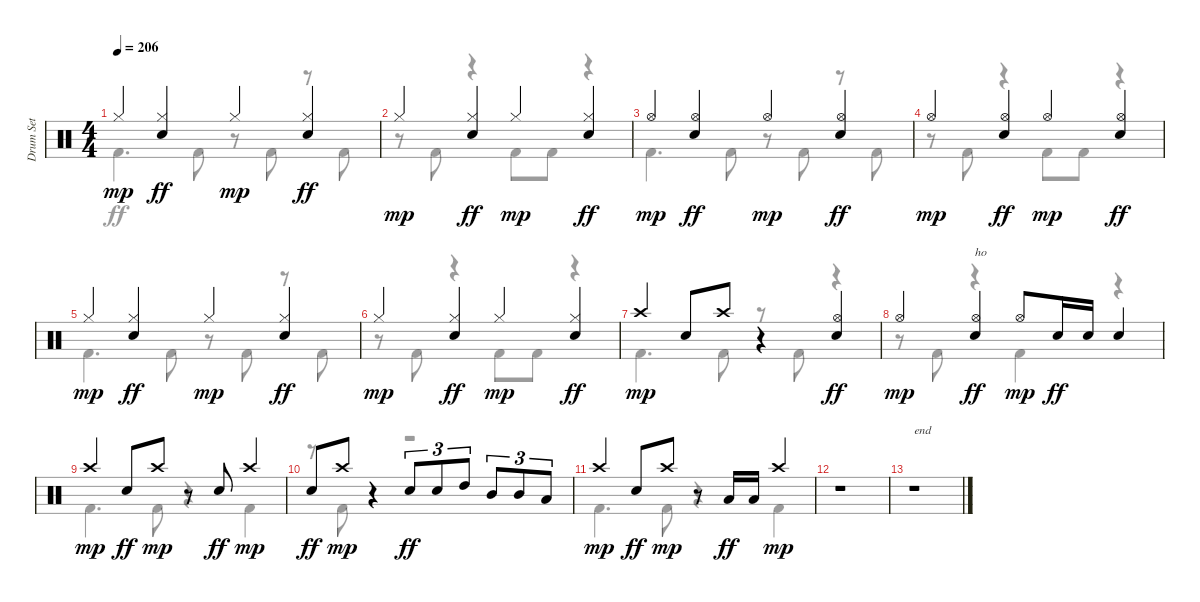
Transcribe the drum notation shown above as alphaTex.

\track ("Drum Set" "Drum Set") {instrument percussion}
\staff {score}
\articulation defaults
\voice
\ts (4 4)
\tempo 206
\clef neutral
\ks c "Hi-Hat (closed)".4{dy mp}
("Hi-Hat (closed)" "Electric Snare (hit)").4{dy ff} "Hi-Hat (closed)".4{dy mp} ("Hi-Hat (closed)" "Electric Snare (hit)").4{dy ff} |
"Hi-Hat (closed)".4{dy mp} ("Hi-Hat (closed)" "Electric Snare (hit)").4{dy ff} "Hi-Hat (closed)".4{dy mp} ("Hi-Hat (closed)" "Electric Snare (hit)").4{dy ff} |
"Hi-Hat (open)".4{dy mp} ("Hi-Hat (open)" "Electric Snare (hit)").4{dy ff} "Hi-Hat (open)".4{dy mp} ("Hi-Hat (open)" "Electric Snare (hit)").4{dy ff} |
"Hi-Hat (open)".4{dy mp} ("Hi-Hat (open)" "Electric Snare (hit)").4{dy ff} "Hi-Hat (open)".4{dy mp} ("Hi-Hat (open)" "Electric Snare (hit)").4{dy ff} |
"Hi-Hat (closed)".4{dy mp} ("Hi-Hat (closed)" "Electric Snare (hit)").4{dy ff} "Hi-Hat (closed)".4{dy mp} ("Hi-Hat (closed)" "Electric Snare (hit)").4{dy ff} |
"Hi-Hat (closed)".4{dy mp} ("Hi-Hat (closed)" "Electric Snare (hit)").4{dy ff} "Hi-Hat (closed)".4{dy mp} ("Hi-Hat (closed)" "Electric Snare (hit)").4{dy ff} |
"Crash high (hit)".4{dy mp} "Electric Snare (hit)".8 "Crash high (hit)".8 r.4 ("Hi-Hat (open)" "Electric Snare (hit)").4{dy ff} |
"Hi-Hat (open)".4{dy mp} ("Hi-Hat (open)" "Electric Snare (hit)").4{txt "ho" dy ff} "Hi-Hat (open)".8{dy mp} "Electric Snare (hit)".16{dy ff} "Electric Snare (hit)".16 "Electric Snare (hit)".4 |
"Crash high (hit)".4{dy mp} "Electric Snare (hit)".8{dy ff} "Crash high (hit)".8{dy mp} r.8 "Electric Snare (hit)".8{dy ff} "Crash high (hit)".4{dy mp} |
"Electric Snare (hit)".8{dy ff} "Crash high (hit)".8{dy mp} r.4 "Electric Snare (hit)".8{tu (3 2) dy ff} "Electric Snare (hit)".8{tu (3 2)} "High Tom (hit)".8{tu (3 2)} "Mid Tom (hit)".8{tu (3 2)} "Mid Tom (hit)".8{tu (3 2)} "Low Tom (hit)".8{tu (3 2)} |
"Crash high (hit)".4{dy mp} "Electric Snare (hit)".8{dy ff} "Crash high (hit)".8{dy mp} r.8 "Low Tom (hit)".16{dy ff} "Low Tom (hit)".16 "Crash high (hit)".4{dy mp} |
r.1 |
r.1{txt "end"}
\voice
\clef neutral
\ottava regular
\simile none
\ks c "Kick (hit) 2".4{d dy ff} "Kick (hit) 2".8
r.8 "Kick (hit) 2".8 r.8 "Kick (hit) 2".8 |
r.8 "Kick (hit) 2".8 r.4 "Kick (hit) 2".8 "Kick (hit) 2".8 r.4 |
"Kick (hit) 2".4{d} "Kick (hit) 2".8 r.8 "Kick (hit) 2".8 r.8 "Kick (hit) 2".8 |
r.8 "Kick (hit) 2".8 r.4 "Kick (hit) 2".8 "Kick (hit) 2".8 r.4 |
"Kick (hit) 2".4{d} "Kick (hit) 2".8 r.8 "Kick (hit) 2".8 r.8 "Kick (hit) 2".8 |
r.8 "Kick (hit) 2".8 r.4 "Kick (hit) 2".8 "Kick (hit) 2".8 r.4 |
"Kick (hit) 2".4{d} "Kick (hit) 2".8 r.8 "Kick (hit) 2".8 r.4 |
r.8 "Kick (hit) 2".8 r.4 "Kick (hit) 2".4 r.4 |
"Kick (hit) 2".4{d} "Kick (hit) 2".8 r.4 "Kick (hit) 2".4 |
r.8 "Kick (hit) 2".8 r.4 r.2 |
"Kick (hit) 2".4{d} "Kick (hit) 2".8 r.4 "Kick (hit) 2".4 |
|
